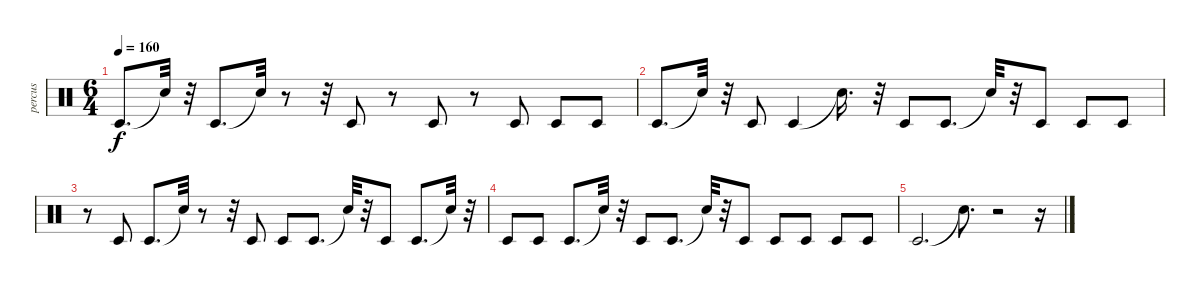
\track ("percus" "percus") {instrument percussion}
\staff {score}
\articulation defaults
\ts (6 4)
\tempo 160
\clef neutral
\ks c "Timbale low (hit)".8{d dy f} "Snare (hit)"{t}.32
r.32 "Timbale low (hit)".8{d} "Snare (hit)"{t}.32 r.8 r.32 "Timbale low (hit)".8 r.8 "Timbale low (hit)".8 r.8 "Timbale low (hit)".8 "Timbale low (hit)".8 "Timbale low (hit)".8 |
"Timbale low (hit)".8{d} "Snare (hit)"{t}.32 r.32 "Timbale low (hit)".8 "Timbale low (hit)".4 "Snare (hit)"{t}.16{d} r.32 "Timbale low (hit)".8 "Timbale low (hit)".8{d} "Snare (hit)"{t}.32 r.32 "Timbale low (hit)".8 "Timbale low (hit)".8 "Timbale low (hit)".8 |
r.8 "Timbale low (hit)".8 "Timbale low (hit)".8{d} "Snare (hit)"{t}.32 r.8 r.32 "Timbale low (hit)".8 "Timbale low (hit)".8 "Timbale low (hit)".8{d} "Snare (hit)"{t}.32 r.32 "Timbale low (hit)".8 "Timbale low (hit)".8{d} "Snare (hit)"{t}.32 r.32 |
"Timbale low (hit)".8 "Timbale low (hit)".8 "Timbale low (hit)".8{d} "Snare (hit)"{t}.32 r.32 "Timbale low (hit)".8 "Timbale low (hit)".8{d} "Snare (hit)"{t}.32 r.32 "Timbale low (hit)".8 "Timbale low (hit)".8 "Timbale low (hit)".8 "Timbale low (hit)".8 "Timbale low (hit)".8 |
"Timbale low (hit)".2{d} "Snare (hit)"{t}.8{d} r.2 r.16
